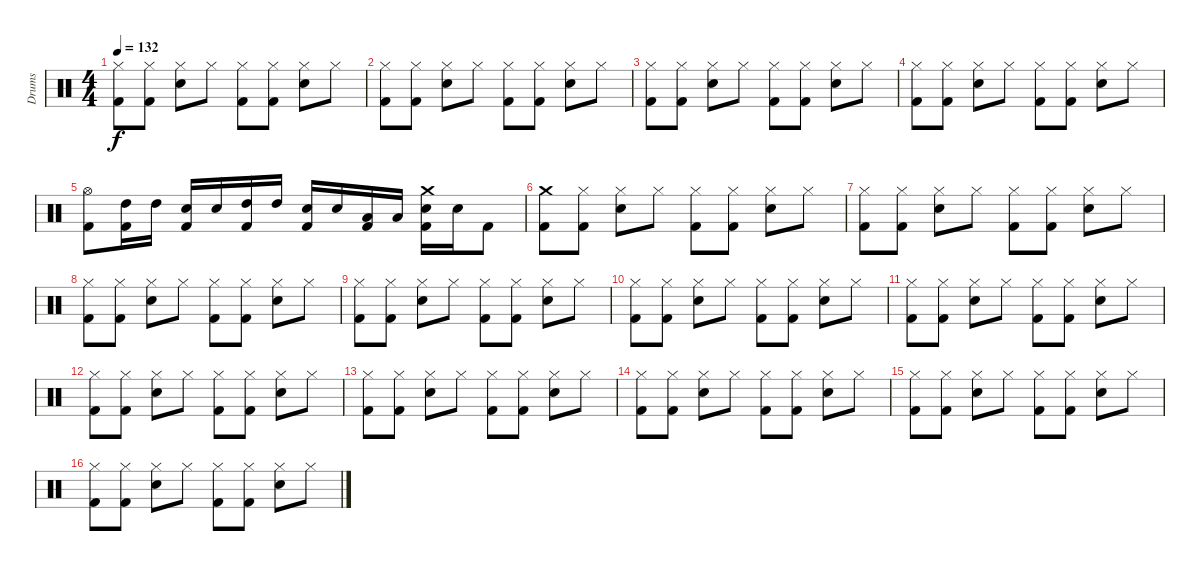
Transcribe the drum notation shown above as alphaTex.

\track ("Drums" "Drums") {instrument percussion}
\staff {score}
\articulation defaults
\ts (4 4)
\tempo 132
\clef neutral
\ks c
("Kick (hit) 2" "Hi-Hat (closed)").8{dy f} ("Kick (hit) 2" "Hi-Hat (closed)").8 ("Snare (hit) 2" "Hi-Hat (closed)").8 "Hi-Hat (closed)".8 ("Kick (hit) 2" "Hi-Hat (closed)").8 ("Kick (hit) 2" "Hi-Hat (closed)").8 ("Snare (hit) 2" "Hi-Hat (closed)").8 "Hi-Hat (closed)".8 |
("Kick (hit) 2" "Hi-Hat (closed)").8 ("Kick (hit) 2" "Hi-Hat (closed)").8 ("Snare (hit) 2" "Hi-Hat (closed)").8 "Hi-Hat (closed)".8 ("Kick (hit) 2" "Hi-Hat (closed)").8 ("Kick (hit) 2" "Hi-Hat (closed)").8 ("Snare (hit) 2" "Hi-Hat (closed)").8 "Hi-Hat (closed)".8 |
("Kick (hit) 2" "Hi-Hat (closed)").8 ("Kick (hit) 2" "Hi-Hat (closed)").8 ("Snare (hit) 2" "Hi-Hat (closed)").8 "Hi-Hat (closed)".8 ("Kick (hit) 2" "Hi-Hat (closed)").8 ("Kick (hit) 2" "Hi-Hat (closed)").8 ("Snare (hit) 2" "Hi-Hat (closed)").8 "Hi-Hat (closed)".8 |
("Kick (hit) 2" "Hi-Hat (closed)").8 ("Kick (hit) 2" "Hi-Hat (closed)").8 ("Snare (hit) 2" "Hi-Hat (closed)").8 "Hi-Hat (closed)".8 ("Kick (hit) 2" "Hi-Hat (closed)").8 ("Kick (hit) 2" "Hi-Hat (closed)").8 ("Snare (hit) 2" "Hi-Hat (closed)").8 "Hi-Hat (closed)".8 |
("Kick (hit) 2" "Hi-Hat (open)").8 ("Kick (hit) 2" "High Tom (hit)").16 "High Tom (hit)".16 ("Kick (hit) 2" "Snare (hit) 2").16 "Snare (hit) 2".16 ("Kick (hit) 2" "High Tom (hit)").16 "High Tom (hit)".16 ("Kick (hit) 2" "Snare (hit) 2").16 "Snare (hit) 2".16 ("Kick (hit) 2" "Low Tom (hit)").16 "Low Tom (hit)".16 ("Kick (hit) 2" "Snare (hit) 2" "Crash medium (hit)").16 "Snare (hit) 2".16 "Kick (hit) 2".8 |
("Kick (hit) 2" "Crash medium (hit)").8 ("Kick (hit) 2" "Hi-Hat (closed)").8 ("Snare (hit) 2" "Hi-Hat (closed)").8 "Hi-Hat (closed)".8 ("Kick (hit) 2" "Hi-Hat (closed)").8 ("Kick (hit) 2" "Hi-Hat (closed)").8 ("Snare (hit) 2" "Hi-Hat (closed)").8 "Hi-Hat (closed)".8 |
("Kick (hit) 2" "Hi-Hat (closed)").8 ("Kick (hit) 2" "Hi-Hat (closed)").8 ("Snare (hit) 2" "Hi-Hat (closed)").8 "Hi-Hat (closed)".8 ("Kick (hit) 2" "Hi-Hat (closed)").8 ("Kick (hit) 2" "Hi-Hat (closed)").8 ("Snare (hit) 2" "Hi-Hat (closed)").8 "Hi-Hat (closed)".8 |
("Kick (hit) 2" "Hi-Hat (closed)").8 ("Kick (hit) 2" "Hi-Hat (closed)").8 ("Snare (hit) 2" "Hi-Hat (closed)").8 "Hi-Hat (closed)".8 ("Kick (hit) 2" "Hi-Hat (closed)").8 ("Kick (hit) 2" "Hi-Hat (closed)").8 ("Snare (hit) 2" "Hi-Hat (closed)").8 "Hi-Hat (closed)".8 |
("Kick (hit) 2" "Hi-Hat (closed)").8 ("Kick (hit) 2" "Hi-Hat (closed)").8 ("Snare (hit) 2" "Hi-Hat (closed)").8 "Hi-Hat (closed)".8 ("Kick (hit) 2" "Hi-Hat (closed)").8 ("Kick (hit) 2" "Hi-Hat (closed)").8 ("Snare (hit) 2" "Hi-Hat (closed)").8 "Hi-Hat (closed)".8 |
("Kick (hit) 2" "Hi-Hat (closed)").8 ("Kick (hit) 2" "Hi-Hat (closed)").8 ("Snare (hit) 2" "Hi-Hat (closed)").8 "Hi-Hat (closed)".8 ("Kick (hit) 2" "Hi-Hat (closed)").8 ("Kick (hit) 2" "Hi-Hat (closed)").8 ("Snare (hit) 2" "Hi-Hat (closed)").8 "Hi-Hat (closed)".8 |
("Kick (hit) 2" "Hi-Hat (closed)").8 ("Kick (hit) 2" "Hi-Hat (closed)").8 ("Snare (hit) 2" "Hi-Hat (closed)").8 "Hi-Hat (closed)".8 ("Kick (hit) 2" "Hi-Hat (closed)").8 ("Kick (hit) 2" "Hi-Hat (closed)").8 ("Snare (hit) 2" "Hi-Hat (closed)").8 "Hi-Hat (closed)".8 |
("Kick (hit) 2" "Hi-Hat (closed)").8 ("Kick (hit) 2" "Hi-Hat (closed)").8 ("Snare (hit) 2" "Hi-Hat (closed)").8 "Hi-Hat (closed)".8 ("Kick (hit) 2" "Hi-Hat (closed)").8 ("Kick (hit) 2" "Hi-Hat (closed)").8 ("Snare (hit) 2" "Hi-Hat (closed)").8 "Hi-Hat (closed)".8 |
("Kick (hit) 2" "Hi-Hat (closed)").8 ("Kick (hit) 2" "Hi-Hat (closed)").8 ("Snare (hit) 2" "Hi-Hat (closed)").8 "Hi-Hat (closed)".8 ("Kick (hit) 2" "Hi-Hat (closed)").8 ("Kick (hit) 2" "Hi-Hat (closed)").8 ("Snare (hit) 2" "Hi-Hat (closed)").8 "Hi-Hat (closed)".8 |
("Kick (hit) 2" "Hi-Hat (closed)").8 ("Kick (hit) 2" "Hi-Hat (closed)").8 ("Snare (hit) 2" "Hi-Hat (closed)").8 "Hi-Hat (closed)".8 ("Kick (hit) 2" "Hi-Hat (closed)").8 ("Kick (hit) 2" "Hi-Hat (closed)").8 ("Snare (hit) 2" "Hi-Hat (closed)").8 "Hi-Hat (closed)".8 |
("Kick (hit) 2" "Hi-Hat (closed)").8 ("Kick (hit) 2" "Hi-Hat (closed)").8 ("Snare (hit) 2" "Hi-Hat (closed)").8 "Hi-Hat (closed)".8 ("Kick (hit) 2" "Hi-Hat (closed)").8 ("Kick (hit) 2" "Hi-Hat (closed)").8 ("Snare (hit) 2" "Hi-Hat (closed)").8 "Hi-Hat (closed)".8 |
("Kick (hit) 2" "Hi-Hat (closed)").8 ("Kick (hit) 2" "Hi-Hat (closed)").8 ("Snare (hit) 2" "Hi-Hat (closed)").8 "Hi-Hat (closed)".8 ("Kick (hit) 2" "Hi-Hat (closed)").8 ("Kick (hit) 2" "Hi-Hat (closed)").8 ("Snare (hit) 2" "Hi-Hat (closed)").8 "Hi-Hat (closed)".8
